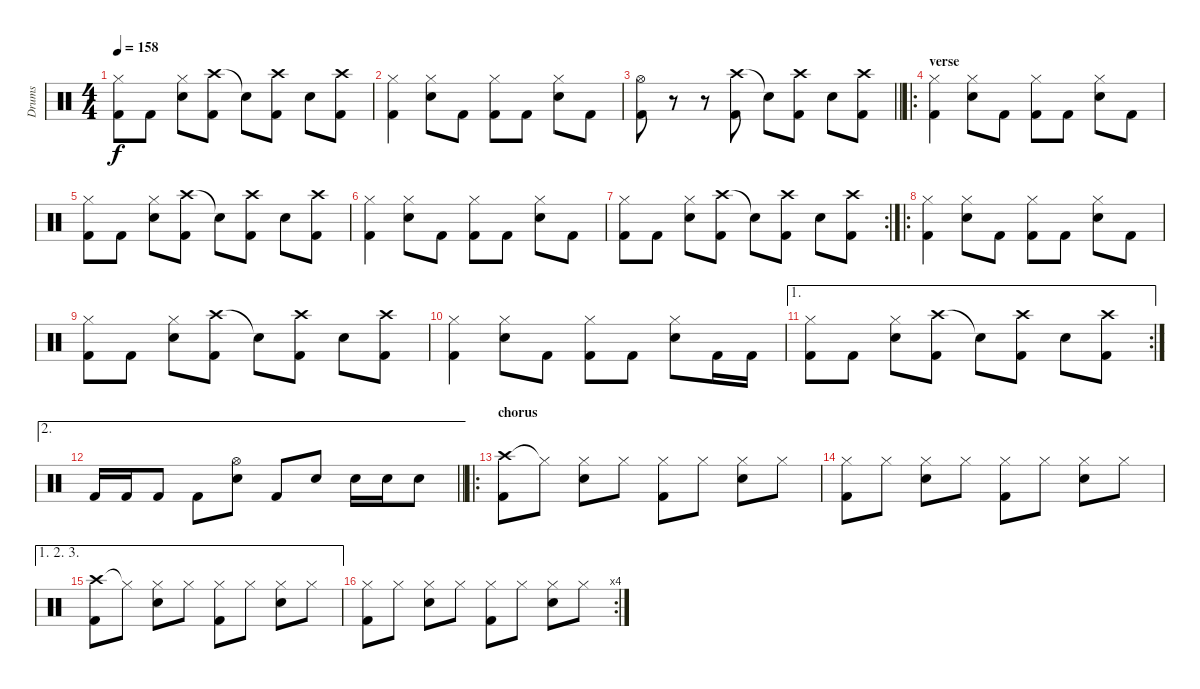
\track ("Drums" "Drums") {instrument percussion}
\staff {score}
\articulation defaults
\ts (4 4)
\tempo 158
\clef neutral
\ks c
("Hi-Hat (closed)" "Kick (hit) 2").8{dy f} "Kick (hit) 2".8 ("Hi-Hat (closed)" "Electric Snare (hit)").8 ("Crash high (hit)" "Kick (hit) 2").8 "Snare (hit)"{t}.8 ("Crash high (hit)" "Kick (hit) 2").8 "Electric Snare (hit)".8 ("Crash high (hit)" "Kick (hit) 2").8 |
("Hi-Hat (closed)" "Kick (hit) 2").4 ("Hi-Hat (closed)" "Electric Snare (hit)").8 "Kick (hit) 2".8 ("Hi-Hat (closed)" "Kick (hit) 2").8 "Kick (hit) 2".8 ("Hi-Hat (closed)" "Electric Snare (hit)").8 "Kick (hit) 2".8 |
\barLineRight lightlight
("Hi-Hat (open)" "Kick (hit) 2").8 r.8 r.8 ("Crash high (hit)" "Kick (hit) 2").8 "Snare (hit)"{t}.8 ("Crash high (hit)" "Kick (hit) 2").8 "Electric Snare (hit)".8 ("Crash high (hit)" "Kick (hit) 2").8 |
\ro
\section ("" "verse")
("Hi-Hat (closed)" "Kick (hit) 2").4 ("Hi-Hat (closed)" "Electric Snare (hit)").8 "Kick (hit) 2".8 ("Hi-Hat (closed)" "Kick (hit) 2").8 "Kick (hit) 2".8 ("Hi-Hat (closed)" "Electric Snare (hit)").8 "Kick (hit) 2".8 |
("Hi-Hat (closed)" "Kick (hit) 2").8 "Kick (hit) 2".8 ("Hi-Hat (closed)" "Electric Snare (hit)").8 ("Crash high (hit)" "Kick (hit) 2").8 "Snare (hit)"{t}.8 ("Crash high (hit)" "Kick (hit) 2").8 "Electric Snare (hit)".8 ("Crash high (hit)" "Kick (hit) 2").8 |
("Hi-Hat (closed)" "Kick (hit) 2").4 ("Hi-Hat (closed)" "Electric Snare (hit)").8 "Kick (hit) 2".8 ("Hi-Hat (closed)" "Kick (hit) 2").8 "Kick (hit) 2".8 ("Hi-Hat (closed)" "Electric Snare (hit)").8 "Kick (hit) 2".8 |
\rc 2
("Hi-Hat (closed)" "Kick (hit) 2").8 "Kick (hit) 2".8 ("Hi-Hat (closed)" "Electric Snare (hit)").8 ("Crash high (hit)" "Kick (hit) 2").8 "Snare (hit)"{t}.8 ("Crash high (hit)" "Kick (hit) 2").8 "Electric Snare (hit)".8 ("Crash high (hit)" "Kick (hit) 2").8 |
\ro
("Hi-Hat (closed)" "Kick (hit) 2").4 ("Hi-Hat (closed)" "Electric Snare (hit)").8 "Kick (hit) 2".8 ("Hi-Hat (closed)" "Kick (hit) 2").8 "Kick (hit) 2".8 ("Hi-Hat (closed)" "Electric Snare (hit)").8 "Kick (hit) 2".8 |
("Hi-Hat (closed)" "Kick (hit) 2").8 "Kick (hit) 2".8 ("Hi-Hat (closed)" "Electric Snare (hit)").8 ("Crash high (hit)" "Kick (hit) 2").8 "Snare (hit)"{t}.8 ("Crash high (hit)" "Kick (hit) 2").8 "Electric Snare (hit)".8 ("Crash high (hit)" "Kick (hit) 2").8 |
("Hi-Hat (closed)" "Kick (hit) 2").4 ("Hi-Hat (closed)" "Electric Snare (hit)").8 "Kick (hit) 2".8 ("Hi-Hat (closed)" "Kick (hit) 2").8 "Kick (hit) 2".8 ("Hi-Hat (closed)" "Electric Snare (hit)").8 "Kick (hit) 2".16 "Kick (hit) 2".16 |
\ae 1
\rc 2
("Hi-Hat (closed)" "Kick (hit) 2").8 "Kick (hit) 2".8 ("Hi-Hat (closed)" "Electric Snare (hit)").8 ("Crash high (hit)" "Kick (hit) 2").8 "Snare (hit)"{t}.8 ("Crash high (hit)" "Kick (hit) 2").8 "Electric Snare (hit)".8 ("Crash high (hit)" "Kick (hit) 2").8 |
\ae 2
\barLineRight lightlight "Kick (hit) 2".16 "Kick (hit) 2".16 "Kick (hit) 2".8 "Kick (hit) 2".8
("Hi-Hat (open)" "Electric Snare (hit)").8 "Kick (hit) 2".8 "Electric Snare (hit)".8 "Electric Snare (hit)".16 "Electric Snare (hit)".16 "Electric Snare (hit)".8 |
\ro
\section ("" "chorus")
("Crash high (hit)" "Kick (hit) 2").8 "Hi-Hat (closed)"{t}.8 ("Hi-Hat (closed)" "Electric Snare (hit)").8 "Hi-Hat (closed)".8 ("Hi-Hat (closed)" "Kick (hit) 2").8 "Hi-Hat (closed)".8 ("Hi-Hat (closed)" "Electric Snare (hit)").8 "Hi-Hat (closed)".8 |
("Hi-Hat (closed)" "Kick (hit) 2").8 "Hi-Hat (closed)".8 ("Hi-Hat (closed)" "Electric Snare (hit)").8 "Hi-Hat (closed)".8 ("Hi-Hat (closed)" "Kick (hit) 2").8 "Hi-Hat (closed)".8 ("Hi-Hat (closed)" "Electric Snare (hit)").8 "Hi-Hat (closed)".8 |
\ae (1 2 3)
("Crash high (hit)" "Kick (hit) 2").8 "Hi-Hat (closed)"{t}.8 ("Hi-Hat (closed)" "Electric Snare (hit)").8 "Hi-Hat (closed)".8 ("Hi-Hat (closed)" "Kick (hit) 2").8 "Hi-Hat (closed)".8 ("Hi-Hat (closed)" "Electric Snare (hit)").8 "Hi-Hat (closed)".8 |
\rc 4
("Hi-Hat (closed)" "Kick (hit) 2").8 "Hi-Hat (closed)".8 ("Hi-Hat (closed)" "Electric Snare (hit)").8 "Hi-Hat (closed)".8 ("Hi-Hat (closed)" "Kick (hit) 2").8 "Hi-Hat (closed)".8 ("Hi-Hat (closed)" "Electric Snare (hit)").8 "Hi-Hat (closed)".8
